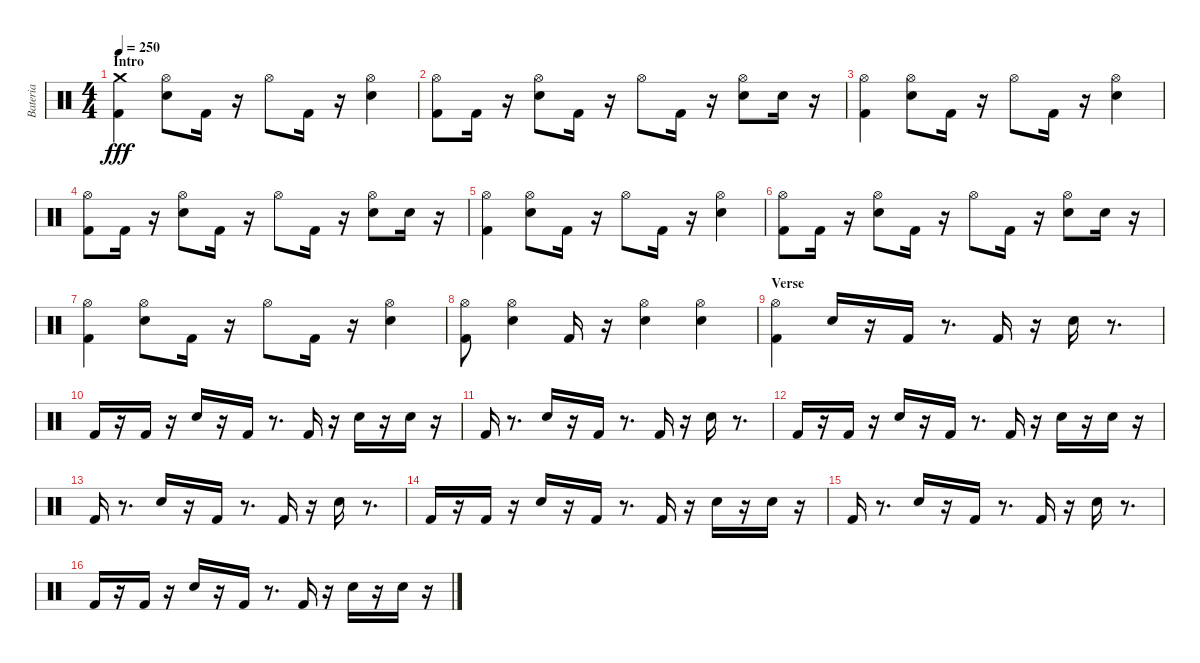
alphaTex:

\track ("Bateria" "Bateria") {instrument percussion}
\staff {score}
\articulation defaults
\ts (4 4)
\section ("" "Intro")
\tempo 250
\clef neutral
\ks c
("Crash medium (hit)" "Kick (hit) 2").4{dy fff} ("Electric Snare (hit)" "Hi-Hat (open)").8 "Kick (hit) 2".16 r.16 "Hi-Hat (open)".8 "Kick (hit) 2".16 r.16 ("Electric Snare (hit)" "Hi-Hat (open)").4 |
("Kick (hit) 2" "Hi-Hat (open)").8 "Kick (hit) 2".16 r.16 ("Electric Snare (hit)" "Hi-Hat (open)").8 "Kick (hit) 2".16 r.16 "Hi-Hat (open)".8 "Kick (hit) 2".16 r.16 ("Electric Snare (hit)" "Hi-Hat (open)").8 "Electric Snare (hit)".16 r.16 |
("Kick (hit) 2" "Hi-Hat (open)").4 ("Electric Snare (hit)" "Hi-Hat (open)").8 "Kick (hit) 2".16 r.16 "Hi-Hat (open)".8 "Kick (hit) 2".16 r.16 ("Electric Snare (hit)" "Hi-Hat (open)").4 |
("Kick (hit) 2" "Hi-Hat (open)").8 "Kick (hit) 2".16 r.16 ("Electric Snare (hit)" "Hi-Hat (open)").8 "Kick (hit) 2".16 r.16 "Hi-Hat (open)".8 "Kick (hit) 2".16 r.16 ("Electric Snare (hit)" "Hi-Hat (open)").8 "Electric Snare (hit)".16 r.16 |
("Kick (hit) 2" "Hi-Hat (open)").4 ("Electric Snare (hit)" "Hi-Hat (open)").8 "Kick (hit) 2".16 r.16 "Hi-Hat (open)".8 "Kick (hit) 2".16 r.16 ("Electric Snare (hit)" "Hi-Hat (open)").4 |
("Kick (hit) 2" "Hi-Hat (open)").8 "Kick (hit) 2".16 r.16 ("Electric Snare (hit)" "Hi-Hat (open)").8 "Kick (hit) 2".16 r.16 "Hi-Hat (open)".8 "Kick (hit) 2".16 r.16 ("Electric Snare (hit)" "Hi-Hat (open)").8 "Electric Snare (hit)".16 r.16 |
("Kick (hit) 2" "Hi-Hat (open)").4 ("Electric Snare (hit)" "Hi-Hat (open)").8 "Kick (hit) 2".16 r.16 "Hi-Hat (open)".8 "Kick (hit) 2".16 r.16 ("Electric Snare (hit)" "Hi-Hat (open)").4 |
("Kick (hit) 2" "Hi-Hat (open)").8 ("Electric Snare (hit)" "Hi-Hat (open)").4 "Kick (hit) 2".16 r.16 ("Electric Snare (hit)" "Hi-Hat (open)").4 ("Electric Snare (hit)" "Hi-Hat (open)").4 |
\section ("" "Verse")
("Hi-Hat (open)" "Kick (hit) 2").4 "Electric Snare (hit)".16 r.16 "Kick (hit) 2".16 r.8{d} "Kick (hit) 2".16 r.16 "Electric Snare (hit)".16 r.8{d} |
"Kick (hit) 2".16 r.16 "Kick (hit) 2".16 r.16 "Electric Snare (hit)".16 r.16 "Kick (hit) 2".16 r.8{d} "Kick (hit) 2".16 r.16 "Electric Snare (hit)".16 r.16 "Electric Snare (hit)".16 r.16 |
"Kick (hit) 2".16 r.8{d} "Electric Snare (hit)".16 r.16 "Kick (hit) 2".16 r.8{d} "Kick (hit) 2".16 r.16 "Electric Snare (hit)".16 r.8{d} |
"Kick (hit) 2".16 r.16 "Kick (hit) 2".16 r.16 "Electric Snare (hit)".16 r.16 "Kick (hit) 2".16 r.8{d} "Kick (hit) 2".16 r.16 "Electric Snare (hit)".16 r.16 "Electric Snare (hit)".16 r.16 |
"Kick (hit) 2".16 r.8{d} "Electric Snare (hit)".16 r.16 "Kick (hit) 2".16 r.8{d} "Kick (hit) 2".16 r.16 "Electric Snare (hit)".16 r.8{d} |
"Kick (hit) 2".16 r.16 "Kick (hit) 2".16 r.16 "Electric Snare (hit)".16 r.16 "Kick (hit) 2".16 r.8{d} "Kick (hit) 2".16 r.16 "Electric Snare (hit)".16 r.16 "Electric Snare (hit)".16 r.16 |
"Kick (hit) 2".16 r.8{d} "Electric Snare (hit)".16 r.16 "Kick (hit) 2".16 r.8{d} "Kick (hit) 2".16 r.16 "Electric Snare (hit)".16 r.8{d} |
"Kick (hit) 2".16 r.16 "Kick (hit) 2".16 r.16 "Electric Snare (hit)".16 r.16 "Kick (hit) 2".16 r.8{d} "Kick (hit) 2".16 r.16 "Electric Snare (hit)".16 r.16 "Electric Snare (hit)".16 r.16
